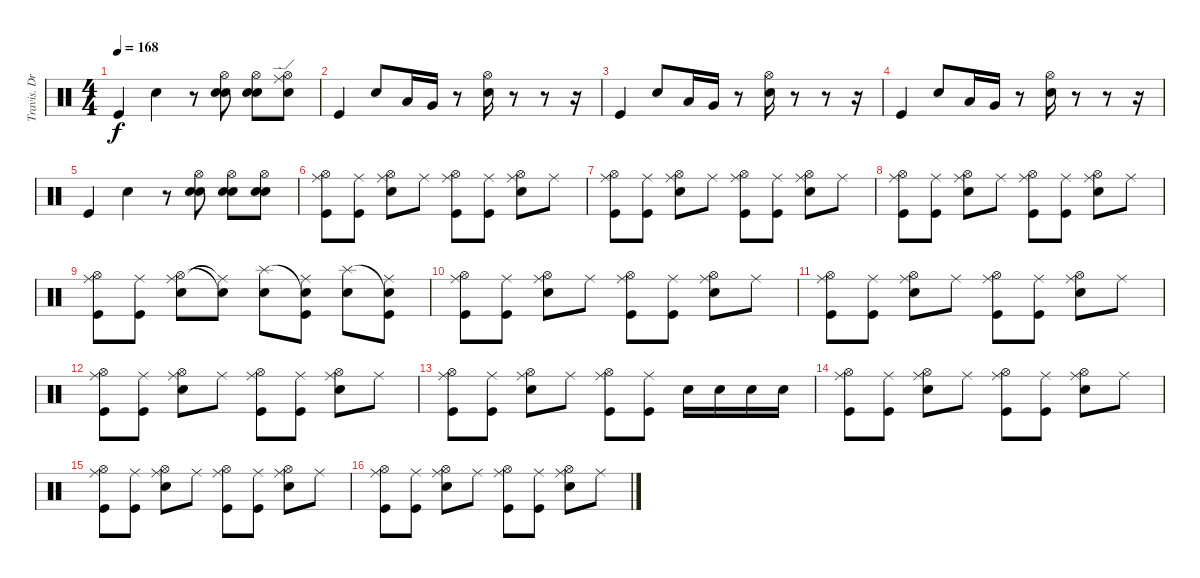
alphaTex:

\track ("Travis. Drums" "Travis. Dr") {instrument percussion}
\staff {score}
\articulation defaults
\ts (4 4)
\tempo 168
\clef neutral
\ks c "Kick (hit)".4{dy f} "Snare (hit) 2".4
r.8 ("Hi-Hat (open)" "Hand Clap (hit)" "Snare (hit) 2").8 ("Hi-Hat (open)" "Hand Clap (hit)" "Snare (hit) 2").8 ("Hi-Hat (open)" "Ride (edge)" "Snare (hit) 2").8 |
"Kick (hit)".4 "Snare (hit) 2".8 "Low Tom (hit)".16 "Very Low Tom (hit)".16 r.8 ("Hi-Hat (open)" "Snare (hit) 2").16 r.8 r.8 r.16 |
"Kick (hit)".4 "Snare (hit) 2".8 "Low Tom (hit)".16 "Very Low Tom (hit)".16 r.8 ("Hi-Hat (open)" "Snare (hit) 2").16 r.8 r.8 r.16 |
"Kick (hit)".4 "Snare (hit) 2".8 "Low Tom (hit)".16 "Very Low Tom (hit)".16 r.8 ("Hi-Hat (open)" "Snare (hit) 2").16 r.8 r.8 r.16 |
"Kick (hit)".4 "Snare (hit) 2".4 r.8 ("Hi-Hat (open)" "Hand Clap (hit)" "Snare (hit) 2").8 ("Hi-Hat (open)" "Hand Clap (hit)" "Snare (hit) 2").8 ("Hi-Hat (open)" "Hand Clap (hit)" "Snare (hit) 2").8 |
("Hi-Hat (open)" "Ride (middle)" "Kick (hit)").8 ("Ride (middle)" "Kick (hit)").8 ("Hi-Hat (open)" "Ride (middle)" "Snare (hit) 2").8 "Ride (middle)".8 ("Hi-Hat (open)" "Ride (middle)" "Kick (hit)").8 ("Ride (middle)" "Kick (hit)").8 ("Hi-Hat (open)" "Ride (middle)" "Snare (hit) 2").8 "Ride (middle)".8 |
("Hi-Hat (open)" "Ride (middle)" "Kick (hit)").8 ("Ride (middle)" "Kick (hit)").8 ("Hi-Hat (open)" "Ride (middle)" "Snare (hit) 2").8 "Ride (middle)".8 ("Hi-Hat (open)" "Ride (middle)" "Kick (hit)").8 ("Ride (middle)" "Kick (hit)").8 ("Hi-Hat (open)" "Ride (middle)" "Snare (hit) 2").8 "Ride (middle)".8 |
("Hi-Hat (open)" "Ride (middle)" "Kick (hit)").8 ("Ride (middle)" "Kick (hit)").8 ("Hi-Hat (open)" "Ride (middle)" "Snare (hit) 2").8 "Ride (middle)".8 ("Hi-Hat (open)" "Ride (middle)" "Kick (hit)").8 ("Ride (middle)" "Kick (hit)").8 ("Hi-Hat (open)" "Ride (middle)" "Snare (hit) 2").8 "Ride (middle)".8 |
("Hi-Hat (open)" "Ride (middle)" "Kick (hit)").8 ("Ride (middle)" "Kick (hit)").8 ("Hi-Hat (open)" "Ride (middle)" "Snare (hit) 2").8 ("Snare (hit)"{t} "Ride (middle)"{t}).8 ("Splash (hit)" "Snare (hit) 2").8 ("Snare (hit)"{t} "Ride (middle)" "Kick (hit)").8 ("Splash (hit)" "Snare (hit) 2").8 ("Snare (hit)"{t} "Ride (middle)" "Kick (hit)").8 |
("Hi-Hat (open)" "Ride (middle)" "Kick (hit)").8 ("Ride (middle)" "Kick (hit)").8 ("Hi-Hat (open)" "Ride (middle)" "Snare (hit) 2").8 "Ride (middle)".8 ("Hi-Hat (open)" "Ride (middle)" "Kick (hit)").8 ("Ride (middle)" "Kick (hit)").8 ("Hi-Hat (open)" "Ride (middle)" "Snare (hit) 2").8 "Ride (middle)".8 |
("Hi-Hat (open)" "Ride (middle)" "Kick (hit)").8 ("Ride (middle)" "Kick (hit)").8 ("Hi-Hat (open)" "Ride (middle)" "Snare (hit) 2").8 "Ride (middle)".8 ("Hi-Hat (open)" "Ride (middle)" "Kick (hit)").8 ("Ride (middle)" "Kick (hit)").8 ("Hi-Hat (open)" "Ride (middle)" "Snare (hit) 2").8 "Ride (middle)".8 |
("Hi-Hat (open)" "Ride (middle)" "Kick (hit)").8 ("Ride (middle)" "Kick (hit)").8 ("Hi-Hat (open)" "Ride (middle)" "Snare (hit) 2").8 "Ride (middle)".8 ("Hi-Hat (open)" "Ride (middle)" "Kick (hit)").8 ("Ride (middle)" "Kick (hit)").8 ("Hi-Hat (open)" "Ride (middle)" "Snare (hit) 2").8 "Ride (middle)".8 |
("Hi-Hat (open)" "Ride (middle)" "Kick (hit)").8 ("Ride (middle)" "Kick (hit)").8 ("Hi-Hat (open)" "Ride (middle)" "Snare (hit) 2").8 "Ride (middle)".8 ("Hi-Hat (open)" "Ride (middle)" "Kick (hit)").8 ("Ride (middle)" "Kick (hit)").8 "Snare (hit) 2".16 "Snare (hit) 2".16 "Snare (hit) 2".16 "Snare (hit) 2".16 |
("Hi-Hat (open)" "Ride (middle)" "Kick (hit)").8 ("Ride (middle)" "Kick (hit)").8 ("Hi-Hat (open)" "Ride (middle)" "Snare (hit) 2").8 "Ride (middle)".8 ("Hi-Hat (open)" "Ride (middle)" "Kick (hit)").8 ("Ride (middle)" "Kick (hit)").8 ("Hi-Hat (open)" "Ride (middle)" "Snare (hit) 2").8 "Ride (middle)".8 |
("Hi-Hat (open)" "Ride (middle)" "Kick (hit)").8 ("Ride (middle)" "Kick (hit)").8 ("Hi-Hat (open)" "Ride (middle)" "Snare (hit) 2").8 "Ride (middle)".8 ("Hi-Hat (open)" "Ride (middle)" "Kick (hit)").8 ("Ride (middle)" "Kick (hit)").8 ("Hi-Hat (open)" "Ride (middle)" "Snare (hit) 2").8 "Ride (middle)".8 |
("Hi-Hat (open)" "Ride (middle)" "Kick (hit)").8 ("Ride (middle)" "Kick (hit)").8 ("Hi-Hat (open)" "Ride (middle)" "Snare (hit) 2").8 "Ride (middle)".8 ("Hi-Hat (open)" "Ride (middle)" "Kick (hit)").8 ("Ride (middle)" "Kick (hit)").8 ("Hi-Hat (open)" "Ride (middle)" "Snare (hit) 2").8 "Ride (middle)".8
